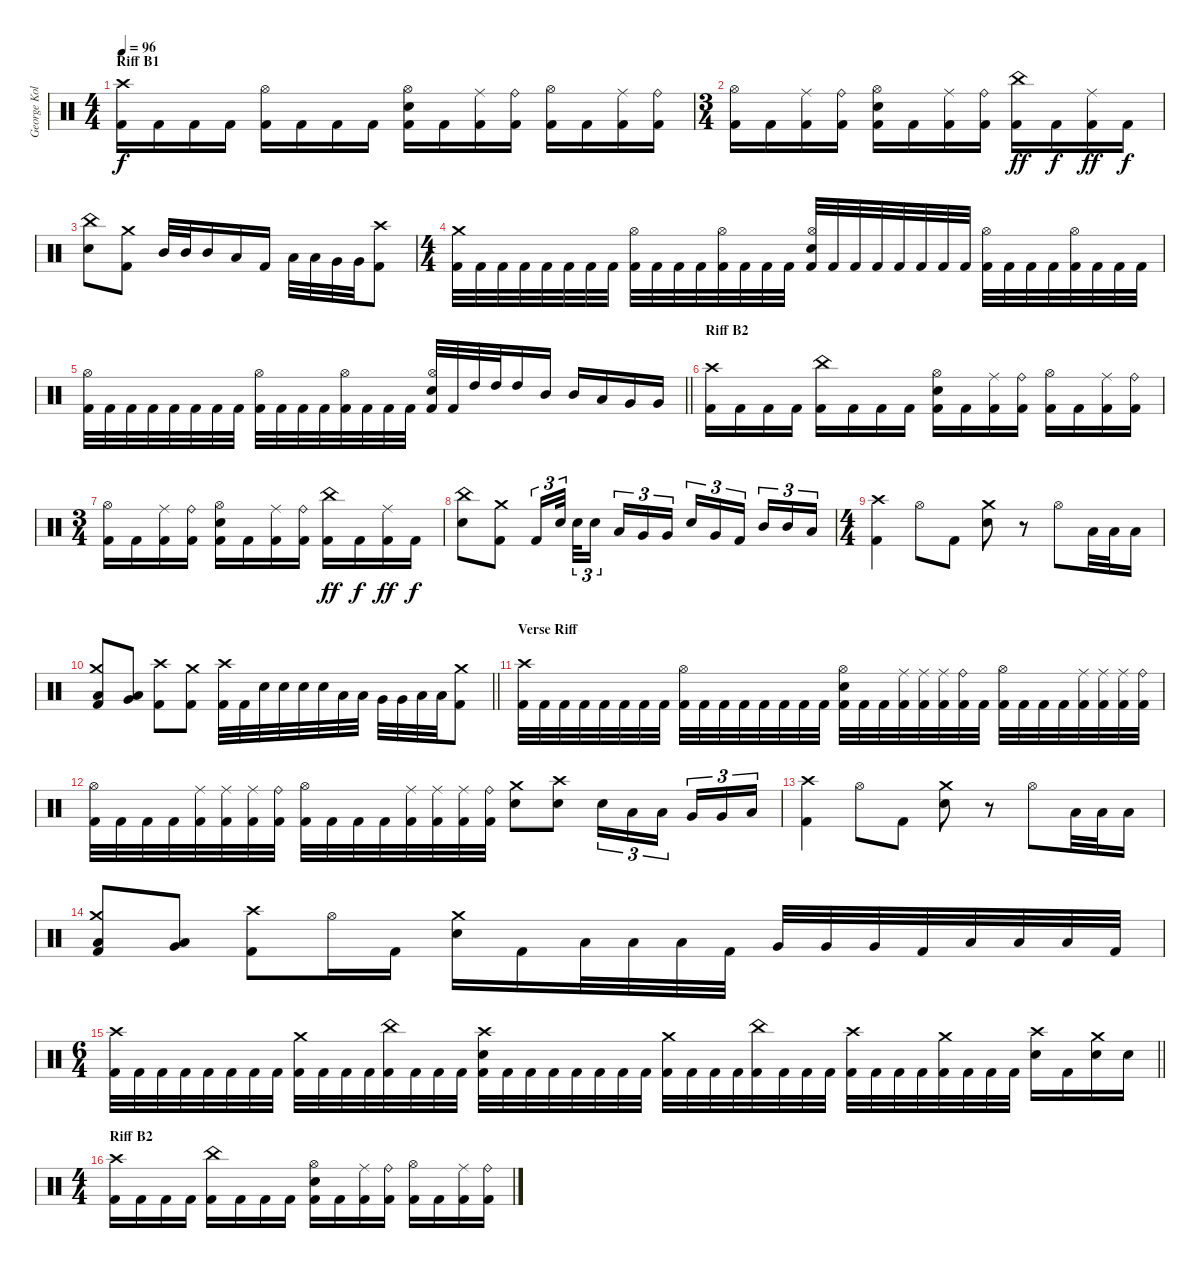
\track ("George Kollias" "George Kol") {instrument percussion}
\staff {score}
\articulation defaults
\ts (4 4)
\section ("" "Riff B1")
\tempo 96
\clef neutral
\ks c
("Crash high (hit)" "Kick (hit) 2").16{dy f} "Kick (hit) 2".16 "Kick (hit) 2".16 "Kick (hit) 2".16 ("Hi-Hat (open)" "Kick (hit) 2").16 "Kick (hit) 2".16 "Kick (hit) 2".16 "Kick (hit) 2".16 ("Hi-Hat (open)" "Electric Snare (hit)" "Kick (hit) 2").16 "Kick (hit) 2".16 ("Ride (middle)" "Kick (hit) 2").16 ("Ride (bell)" "Kick (hit) 2").16 ("Hi-Hat (open)" "Kick (hit) 2").16 "Kick (hit) 2".16 ("Ride (middle)" "Kick (hit) 2").16 ("Ride (bell)" "Kick (hit) 2").16 |
\ts (3 4)
("Hi-Hat (open)" "Kick (hit) 2").16 "Kick (hit) 2".16 ("Ride (middle)" "Kick (hit) 2").16 ("Ride (bell)" "Kick (hit) 2").16 ("Hi-Hat (open)" "Electric Snare (hit)" "Kick (hit) 2").16 "Kick (hit) 2".16 ("Ride (middle)" "Kick (hit) 2").16 ("Ride (bell)" "Kick (hit) 2").16 ("China (hit)" "Kick (hit) 2").16{dy ff} "Kick (hit) 2".16{dy f} ("Ride (middle)" "Kick (hit) 2").16{dy ff} "Kick (hit) 2".16{dy f} |
("China (hit)" "Electric Snare (hit)").8 ("Crash medium (hit)" "Kick (hit) 2").8 "Mid Tom (hit)".32 "Mid Tom (hit)".32 "Mid Tom (hit)".16 "Low Tom (hit)".16 "Kick (hit) 2".16 "Low Tom (hit)".32 "Low Tom (hit)".32 "Very Low Tom (hit)".32 "Very Low Tom (hit)".32 ("Crash high (hit)" "Kick (hit) 2").8 |
\ts (4 4)
("Crash medium (hit)" "Kick (hit) 2").32 "Kick (hit) 2".32 "Kick (hit) 2".32 "Kick (hit) 2".32 "Kick (hit) 2".32 "Kick (hit) 2".32 "Kick (hit) 2".32 "Kick (hit) 2".32 ("Hi-Hat (open)" "Kick (hit) 2").32 "Kick (hit) 2".32 "Kick (hit) 2".32 "Kick (hit) 2".32 ("Hi-Hat (open)" "Kick (hit) 2").32 "Kick (hit) 2".32 "Kick (hit) 2".32 "Kick (hit) 2".32 ("Hi-Hat (open)" "Electric Snare (hit)" "Kick (hit) 2").32 "Kick (hit) 2".32 "Kick (hit) 2".32 "Kick (hit) 2".32 "Kick (hit) 2".32 "Kick (hit) 2".32 "Kick (hit) 2".32 "Kick (hit) 2".32 ("Hi-Hat (open)" "Kick (hit) 2").32 "Kick (hit) 2".32 "Kick (hit) 2".32 "Kick (hit) 2".32 ("Hi-Hat (open)" "Kick (hit) 2").32 "Kick (hit) 2".32 "Kick (hit) 2".32 "Kick (hit) 2".32 |
\barLineRight lightlight
("Hi-Hat (open)" "Kick (hit) 2").32 "Kick (hit) 2".32 "Kick (hit) 2".32 "Kick (hit) 2".32 "Kick (hit) 2".32 "Kick (hit) 2".32 "Kick (hit) 2".32 "Kick (hit) 2".32 ("Hi-Hat (open)" "Kick (hit) 2").32 "Kick (hit) 2".32 "Kick (hit) 2".32 "Kick (hit) 2".32 ("Hi-Hat (open)" "Kick (hit) 2").32 "Kick (hit) 2".32 "Kick (hit) 2".32 "Kick (hit) 2".32 ("Hi-Hat (open)" "Electric Snare (hit)" "Kick (hit) 2").32 "Kick (hit) 2".32 "High Tom (hit)".32 "High Tom (hit)".32 "High Tom (hit)".16 "Mid Tom (hit)".16 "Mid Tom (hit)".16 "Low Tom (hit)".16 "Very Low Tom (hit)".16 "Very Low Tom (hit)".16 |
\section ("" "Riff B2")
("Crash high (hit)" "Kick (hit) 2").16 "Kick (hit) 2".16 "Kick (hit) 2".16 "Kick (hit) 2".16 ("China (hit)" "Kick (hit) 2").16 "Kick (hit) 2".16 "Kick (hit) 2".16 "Kick (hit) 2".16 ("Hi-Hat (open)" "Electric Snare (hit)" "Kick (hit) 2").16 "Kick (hit) 2".16 ("Ride (middle)" "Kick (hit) 2").16 ("Ride (bell)" "Kick (hit) 2").16 ("Hi-Hat (open)" "Kick (hit) 2").16 "Kick (hit) 2".16 ("Ride (middle)" "Kick (hit) 2").16 ("Ride (bell)" "Kick (hit) 2").16 |
\ts (3 4)
("Hi-Hat (open)" "Kick (hit) 2").16 "Kick (hit) 2".16 ("Ride (middle)" "Kick (hit) 2").16 ("Ride (bell)" "Kick (hit) 2").16 ("Hi-Hat (open)" "Electric Snare (hit)" "Kick (hit) 2").16 "Kick (hit) 2".16 ("Ride (middle)" "Kick (hit) 2").16 ("Ride (bell)" "Kick (hit) 2").16 ("China (hit)" "Kick (hit) 2").16{dy ff} "Kick (hit) 2".16{dy f} ("Ride (middle)" "Kick (hit) 2").16{dy ff} "Kick (hit) 2".16{dy f} |
("China (hit)" "Electric Snare (hit)").8 ("Crash medium (hit)" "Kick (hit) 2").8 "Kick (hit) 2".16{tu (3 2)} "Electric Snare (hit)".32{tu (3 2) beam splitsecondary} "Electric Snare (hit)".32{tu (3 2)} "Electric Snare (hit)".16{tu (3 2) beam splitsecondary} "Low Tom (hit)".16{tu (3 2)} "Very Low Tom (hit)".16{tu (3 2)} "Very Low Tom (hit)".16{tu (3 2)} "Electric Snare (hit)".16{tu (3 2)} "Very Low Tom (hit)".16{tu (3 2)} "Kick (hit) 2".16{tu (3 2) beam splitsecondary} "Mid Tom (hit)".16{tu (3 2)} "Mid Tom (hit)".16{tu (3 2)} "Low Tom (hit)".16{tu (3 2)} |
\ts (4 4)
("Crash high (hit)" "Kick (hit) 2").4 "Hi-Hat (open)".8 "Kick (hit) 2".8 ("Crash medium (hit)" "Electric Snare (hit)").8 r.8 "Hi-Hat (open)".8 "Low Tom (hit)".32 "Low Tom (hit)".32 "Low Tom (hit)".16 |
\barLineRight lightlight
("Crash medium (hit)" "Low Floor Tom (hit)" "Kick (hit) 2").8 ("Very Low Tom (hit)" "Low Floor Tom (hit)").8 ("Crash high (hit)" "Kick (hit) 2").8 ("Crash medium (hit)" "Kick (hit) 2").8 ("Crash high (hit)" "Kick (hit) 2").32 "Kick (hit) 2".32 "Electric Snare (hit)".32 "Electric Snare (hit)".32 "Electric Snare (hit)".32 "Electric Snare (hit)".32 "Low Tom (hit)".32 "Low Tom (hit)".32 "Very Low Tom (hit)".32 "Very Low Tom (hit)".32 "Low Floor Tom (hit)".32 "Low Floor Tom (hit)".32 ("Crash medium (hit)" "Kick (hit) 2").8 |
\section ("" "Verse Riff")
("Crash high (hit)" "Kick (hit) 2").32 "Kick (hit) 2".32 "Kick (hit) 2".32 "Kick (hit) 2".32 "Kick (hit) 2".32 "Kick (hit) 2".32 "Kick (hit) 2".32 "Kick (hit) 2".32 ("Hi-Hat (open)" "Kick (hit) 2").32 "Kick (hit) 2".32 "Kick (hit) 2".32 "Kick (hit) 2".32 "Kick (hit) 2".32 "Kick (hit) 2".32 "Kick (hit) 2".32 "Kick (hit) 2".32 ("Hi-Hat (open)" "Electric Snare (hit)" "Kick (hit) 2").32 "Kick (hit) 2".32 "Kick (hit) 2".32 ("Ride (middle)" "Kick (hit) 2").32 ("Ride (middle)" "Kick (hit) 2").32 ("Ride (middle)" "Kick (hit) 2").32 ("Ride (bell)" "Kick (hit) 2").32 "Kick (hit) 2".32 ("Hi-Hat (open)" "Kick (hit) 2").32 "Kick (hit) 2".32 "Kick (hit) 2".32 "Kick (hit) 2".32 ("Ride (middle)" "Kick (hit) 2").32 ("Ride (middle)" "Kick (hit) 2").32 ("Ride (middle)" "Kick (hit) 2").32 ("Ride (bell)" "Kick (hit) 2").32 |
("Hi-Hat (open)" "Kick (hit) 2").32 "Kick (hit) 2".32 "Kick (hit) 2".32 "Kick (hit) 2".32 ("Ride (middle)" "Kick (hit) 2").32 ("Ride (middle)" "Kick (hit) 2").32 ("Ride (middle)" "Kick (hit) 2").32 ("Ride (bell)" "Kick (hit) 2").32 ("Hi-Hat (open)" "Kick (hit) 2").32 "Kick (hit) 2".32 "Kick (hit) 2".32 "Kick (hit) 2".32 ("Ride (middle)" "Kick (hit) 2").32 ("Ride (middle)" "Kick (hit) 2").32 ("Ride (middle)" "Kick (hit) 2").32 ("Ride (bell)" "Kick (hit) 2").32 ("Crash medium (hit)" "Electric Snare (hit)").8 ("Crash high (hit)" "Electric Snare (hit)").8 "Electric Snare (hit)".16{tu (3 2)} "Low Tom (hit)".16{tu (3 2)} "Low Tom (hit)".16{tu (3 2) beam splitsecondary} "Very Low Tom (hit)".16{tu (3 2)} "Very Low Tom (hit)".16{tu (3 2)} "Low Floor Tom (hit)".16{tu (3 2)} |
("Crash high (hit)" "Kick (hit) 2").4 "Hi-Hat (open)".8 "Kick (hit) 2".8 ("Crash medium (hit)" "Electric Snare (hit)").8 r.8 "Hi-Hat (open)".8 "Low Tom (hit)".32 "Low Tom (hit)".32 "Low Tom (hit)".16 |
("Crash medium (hit)" "Low Floor Tom (hit)" "Kick (hit) 2").8 ("Very Low Tom (hit)" "Low Floor Tom (hit)").8 ("Crash high (hit)" "Kick (hit) 2").8 "Hi-Hat (open)".16 "Kick (hit) 2".16 ("Crash medium (hit)" "Electric Snare (hit)").16 "Kick (hit) 2".16 "Low Tom (hit)".32 "Low Tom (hit)".32 "Low Tom (hit)".32 "Kick (hit) 2".32 "Very Low Tom (hit)".32 "Very Low Tom (hit)".32 "Very Low Tom (hit)".32 "Kick (hit) 2".32 "Low Floor Tom (hit)".32 "Low Floor Tom (hit)".32 "Low Floor Tom (hit)".32 "Kick (hit) 2".32 |
\ts (6 4)
\barLineRight lightlight
("Crash high (hit)" "Kick (hit) 2").32 "Kick (hit) 2".32 "Kick (hit) 2".32 "Kick (hit) 2".32 "Kick (hit) 2".32 "Kick (hit) 2".32 "Kick (hit) 2".32 "Kick (hit) 2".32 ("Crash medium (hit)" "Kick (hit) 2").32 "Kick (hit) 2".32 "Kick (hit) 2".32 "Kick (hit) 2".32 ("China (hit)" "Kick (hit) 2").32 "Kick (hit) 2".32 "Kick (hit) 2".32 "Kick (hit) 2".32 ("Crash high (hit)" "Electric Snare (hit)" "Kick (hit) 2").32 "Kick (hit) 2".32 "Kick (hit) 2".32 "Kick (hit) 2".32 "Kick (hit) 2".32 "Kick (hit) 2".32 "Kick (hit) 2".32 "Kick (hit) 2".32 ("Crash medium (hit)" "Kick (hit) 2").32 "Kick (hit) 2".32 "Kick (hit) 2".32 "Kick (hit) 2".32 ("China (hit)" "Kick (hit) 2").32 "Kick (hit) 2".32 "Kick (hit) 2".32 "Kick (hit) 2".32 ("Crash high (hit)" "Kick (hit) 2").32 "Kick (hit) 2".32 "Kick (hit) 2".32 "Kick (hit) 2".32 ("Crash medium (hit)" "Kick (hit) 2").32 "Kick (hit) 2".32 "Kick (hit) 2".32 "Kick (hit) 2".32 ("Crash high (hit)" "Electric Snare (hit)").16 "Kick (hit) 2".16 ("Crash medium (hit)" "Electric Snare (hit)").16 "Electric Snare (hit)".16 |
\ts (4 4)
\section ("" "Riff B2")
("Crash high (hit)" "Kick (hit) 2").16 "Kick (hit) 2".16 "Kick (hit) 2".16 "Kick (hit) 2".16 ("China (hit)" "Kick (hit) 2").16 "Kick (hit) 2".16 "Kick (hit) 2".16 "Kick (hit) 2".16 ("Hi-Hat (open)" "Electric Snare (hit)" "Kick (hit) 2").16 "Kick (hit) 2".16 ("Ride (middle)" "Kick (hit) 2").16 ("Ride (bell)" "Kick (hit) 2").16 ("Hi-Hat (open)" "Kick (hit) 2").16 "Kick (hit) 2".16 ("Ride (middle)" "Kick (hit) 2").16 ("Ride (bell)" "Kick (hit) 2").16
